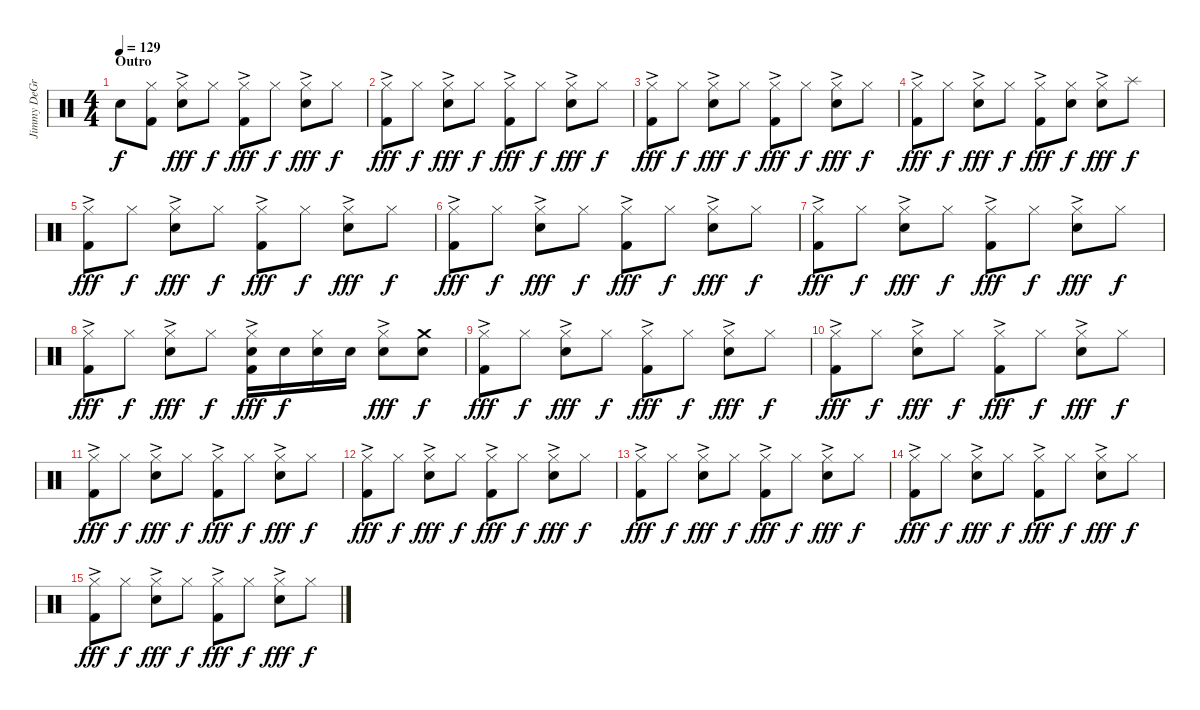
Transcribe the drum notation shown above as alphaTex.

\track ("Jimmy DeGrasso (Drums)" "Jimmy DeGr") {instrument percussion}
\staff {score}
\articulation defaults
\ts (4 4)
\section ("" "Outro")
\tempo 129
\clef neutral
\ks c "Snare (hit)"{t}.8{dy f}
("Hi-Hat (closed)" "Kick (hit) 2").8 ("Hi-Hat (closed)"{ac} "Electric Snare (hit)").8{dy fff} "Hi-Hat (closed)".8{dy f} ("Hi-Hat (closed)"{ac} "Kick (hit) 2").8{dy fff} "Hi-Hat (closed)".8{dy f} ("Hi-Hat (closed)"{ac} "Electric Snare (hit)").8{dy fff} "Hi-Hat (closed)".8{dy f} |
("Hi-Hat (closed)"{ac} "Kick (hit) 2").8{dy fff} "Hi-Hat (closed)".8{dy f} ("Hi-Hat (closed)"{ac} "Electric Snare (hit)").8{dy fff} "Hi-Hat (closed)".8{dy f} ("Hi-Hat (closed)"{ac} "Kick (hit) 2").8{dy fff} "Hi-Hat (closed)".8{dy f} ("Hi-Hat (closed)"{ac} "Electric Snare (hit)").8{dy fff} "Hi-Hat (closed)".8{dy f} |
("Hi-Hat (closed)"{ac} "Kick (hit) 2").8{dy fff volume 10} "Hi-Hat (closed)".8{dy f} ("Hi-Hat (closed)"{ac} "Electric Snare (hit)").8{dy fff} "Hi-Hat (closed)".8{dy f} ("Hi-Hat (closed)"{ac} "Kick (hit) 2").8{dy fff} "Hi-Hat (closed)".8{dy f} ("Hi-Hat (closed)"{ac} "Electric Snare (hit)").8{dy fff} "Hi-Hat (closed)".8{dy f} |
("Hi-Hat (closed)"{ac} "Kick (hit) 2").8{dy fff} "Hi-Hat (closed)".8{dy f} ("Hi-Hat (closed)"{ac} "Electric Snare (hit)").8{dy fff} "Hi-Hat (closed)".8{dy f} ("Hi-Hat (closed)"{ac} "Kick (hit) 2").8{dy fff} ("Hi-Hat (closed)" "Electric Snare (hit)").8{dy f} ("Hi-Hat (closed)"{ac} "Electric Snare (hit)").8{dy fff} "Splash (hit)".8{dy f} |
("Hi-Hat (closed)"{ac} "Kick (hit) 2").8{dy fff} "Hi-Hat (closed)".8{dy f} ("Hi-Hat (closed)"{ac} "Electric Snare (hit)").8{dy fff} "Hi-Hat (closed)".8{dy f} ("Hi-Hat (closed)"{ac} "Kick (hit) 2").8{dy fff} "Hi-Hat (closed)".8{dy f} ("Hi-Hat (closed)"{ac} "Electric Snare (hit)").8{dy fff} "Hi-Hat (closed)".8{dy f} |
("Hi-Hat (closed)"{ac} "Kick (hit) 2").8{dy fff} "Hi-Hat (closed)".8{dy f} ("Hi-Hat (closed)"{ac} "Electric Snare (hit)").8{dy fff} "Hi-Hat (closed)".8{dy f} ("Hi-Hat (closed)"{ac} "Kick (hit) 2").8{dy fff} "Hi-Hat (closed)".8{dy f} ("Hi-Hat (closed)"{ac} "Electric Snare (hit)").8{dy fff} "Hi-Hat (closed)".8{dy f} |
("Hi-Hat (closed)"{ac} "Kick (hit) 2").8{dy fff volume 6} "Hi-Hat (closed)".8{dy f} ("Hi-Hat (closed)"{ac} "Electric Snare (hit)").8{dy fff} "Hi-Hat (closed)".8{dy f} ("Hi-Hat (closed)"{ac} "Kick (hit) 2").8{dy fff} "Hi-Hat (closed)".8{dy f} ("Hi-Hat (closed)"{ac} "Electric Snare (hit)").8{dy fff} "Hi-Hat (closed)".8{dy f} |
("Hi-Hat (closed)"{ac} "Kick (hit) 2").8{dy fff} "Hi-Hat (closed)".8{dy f} ("Hi-Hat (closed)"{ac} "Electric Snare (hit)").8{dy fff} "Hi-Hat (closed)".8{dy f} ("Hi-Hat (closed)"{ac} "Electric Snare (hit)" "Kick (hit) 2").16{dy fff} "Electric Snare (hit)".16{dy f} ("Hi-Hat (closed)" "Electric Snare (hit)").16 "Electric Snare (hit)".16 ("Hi-Hat (closed)"{ac} "Electric Snare (hit)").8{dy fff} ("Crash medium (hit)" "Electric Snare (hit)").8{dy f} |
("Hi-Hat (closed)"{ac} "Kick (hit) 2").8{dy fff} "Hi-Hat (closed)".8{dy f} ("Hi-Hat (closed)"{ac} "Electric Snare (hit)").8{dy fff} "Hi-Hat (closed)".8{dy f} ("Hi-Hat (closed)"{ac} "Kick (hit) 2").8{dy fff} "Hi-Hat (closed)".8{dy f} ("Hi-Hat (closed)"{ac} "Electric Snare (hit)").8{dy fff} "Hi-Hat (closed)".8{dy f} |
("Hi-Hat (closed)"{ac} "Kick (hit) 2").8{dy fff} "Hi-Hat (closed)".8{dy f} ("Hi-Hat (closed)"{ac} "Electric Snare (hit)").8{dy fff} "Hi-Hat (closed)".8{dy f} ("Hi-Hat (closed)"{ac} "Kick (hit) 2").8{dy fff} "Hi-Hat (closed)".8{dy f} ("Hi-Hat (closed)"{ac} "Electric Snare (hit)").8{dy fff} "Hi-Hat (closed)".8{dy f} |
("Hi-Hat (closed)"{ac} "Kick (hit) 2").8{dy fff volume 1} "Hi-Hat (closed)".8{dy f} ("Hi-Hat (closed)"{ac} "Electric Snare (hit)").8{dy fff} "Hi-Hat (closed)".8{dy f} ("Hi-Hat (closed)"{ac} "Kick (hit) 2").8{dy fff} "Hi-Hat (closed)".8{dy f} ("Hi-Hat (closed)"{ac} "Electric Snare (hit)").8{dy fff} "Hi-Hat (closed)".8{dy f} |
("Hi-Hat (closed)"{ac} "Kick (hit) 2").8{dy fff} "Hi-Hat (closed)".8{dy f} ("Hi-Hat (closed)"{ac} "Electric Snare (hit)").8{dy fff} "Hi-Hat (closed)".8{dy f} ("Hi-Hat (closed)"{ac} "Kick (hit) 2").8{dy fff} "Hi-Hat (closed)".8{dy f} ("Hi-Hat (closed)"{ac} "Electric Snare (hit)").8{dy fff} "Hi-Hat (closed)".8{dy f} |
("Hi-Hat (closed)"{ac} "Kick (hit) 2").8{dy fff} "Hi-Hat (closed)".8{dy f} ("Hi-Hat (closed)"{ac} "Electric Snare (hit)").8{dy fff} "Hi-Hat (closed)".8{dy f} ("Hi-Hat (closed)"{ac} "Kick (hit) 2").8{dy fff} "Hi-Hat (closed)".8{dy f} ("Hi-Hat (closed)"{ac} "Electric Snare (hit)").8{dy fff} "Hi-Hat (closed)".8{dy f} |
("Hi-Hat (closed)"{ac} "Kick (hit) 2").8{dy fff} "Hi-Hat (closed)".8{dy f} ("Hi-Hat (closed)"{ac} "Electric Snare (hit)").8{dy fff} "Hi-Hat (closed)".8{dy f} ("Hi-Hat (closed)"{ac} "Kick (hit) 2").8{dy fff} "Hi-Hat (closed)".8{dy f} ("Hi-Hat (closed)"{ac} "Electric Snare (hit)").8{dy fff} "Hi-Hat (closed)".8{dy f} |
("Hi-Hat (closed)"{ac} "Kick (hit) 2").8{dy fff volume 0} "Hi-Hat (closed)".8{dy f} ("Hi-Hat (closed)"{ac} "Electric Snare (hit)").8{dy fff} "Hi-Hat (closed)".8{dy f} ("Hi-Hat (closed)"{ac} "Kick (hit) 2").8{dy fff} "Hi-Hat (closed)".8{dy f} ("Hi-Hat (closed)"{ac} "Electric Snare (hit)").8{dy fff} "Hi-Hat (closed)".8{dy f}
